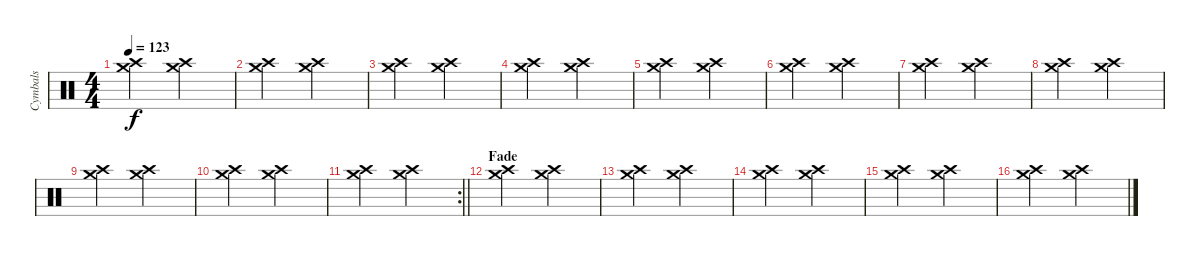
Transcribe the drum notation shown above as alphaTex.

\track ("Cymbals" "Cymbals") {instrument percussion}
\staff {score}
\articulation defaults
\ts (4 4)
\tempo 123
\clef neutral
\ks c
("Crash medium (hit)" "Crash high (hit)").2{dy f} ("Crash medium (hit)" "Crash high (hit)").2 |
("Crash medium (hit)" "Crash high (hit)").2 ("Crash medium (hit)" "Crash high (hit)").2 |
("Crash medium (hit)" "Crash high (hit)").2 ("Crash medium (hit)" "Crash high (hit)").2 |
("Crash medium (hit)" "Crash high (hit)").2 ("Crash medium (hit)" "Crash high (hit)").2 |
("Crash medium (hit)" "Crash high (hit)").2 ("Crash medium (hit)" "Crash high (hit)").2 |
("Crash medium (hit)" "Crash high (hit)").2 ("Crash medium (hit)" "Crash high (hit)").2 |
("Crash medium (hit)" "Crash high (hit)").2 ("Crash medium (hit)" "Crash high (hit)").2 |
("Crash medium (hit)" "Crash high (hit)").2 ("Crash medium (hit)" "Crash high (hit)").2 |
("Crash medium (hit)" "Crash high (hit)").2 ("Crash medium (hit)" "Crash high (hit)").2 |
("Crash medium (hit)" "Crash high (hit)").2 ("Crash medium (hit)" "Crash high (hit)").2 |
\rc 2
\barLineRight lightlight
("Crash medium (hit)" "Crash high (hit)").2 ("Crash medium (hit)" "Crash high (hit)").2 |
\section ("" "Fade")
("Crash medium (hit)" "Crash high (hit)").2{volume 6} ("Crash medium (hit)" "Crash high (hit)").2 |
("Crash medium (hit)" "Crash high (hit)").2 ("Crash medium (hit)" "Crash high (hit)").2 |
("Crash medium (hit)" "Crash high (hit)").2 ("Crash medium (hit)" "Crash high (hit)").2 |
("Crash medium (hit)" "Crash high (hit)").2 ("Crash medium (hit)" "Crash high (hit)").2 |
("Crash medium (hit)" "Crash high (hit)").2{volume 0} ("Crash medium (hit)" "Crash high (hit)").2
